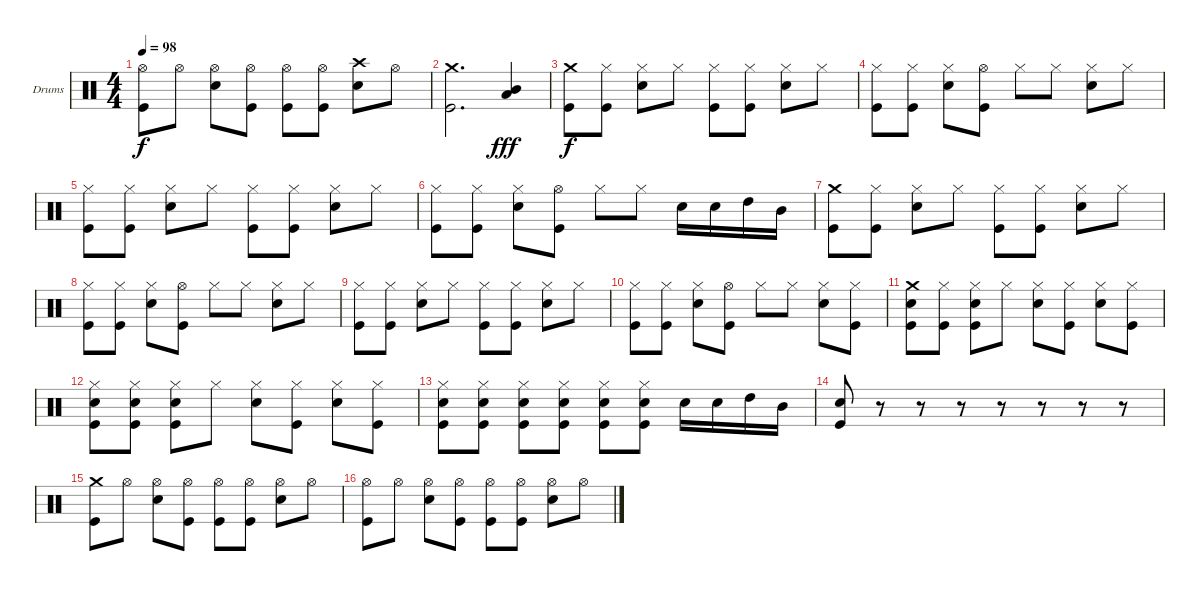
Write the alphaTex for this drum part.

\bracketExtendMode groupsimilarinstruments
\firstSystemTrackNameOrientation horizontal
\otherSystemsTrackNameOrientation horizontal
\track ("Drumkit" "Drums") {instrument percussion}
\staff {score}
\articulation defaults
\ts (4 4)
\tempo 98
\clef neutral
\scale
0.333333
\ks c
("Kick (hit)" "Hi-Hat (open)").8{dy f} "Hi-Hat (open)".8 ("Snare (hit) 2" "Hi-Hat (open)").8 ("Kick (hit)" "Hi-Hat (open)").8 ("Kick (hit)" "Hi-Hat (open)").8 ("Kick (hit)" "Hi-Hat (open)").8 ("Snare (hit) 2" "Crash high (hit)").8 "Hi-Hat (open)".8 |
\scale
0.333333 ("Kick (hit)" "Crash medium (hit)").2{d} ("Mid Tom (hit)" "Low Tom (hit)").4{dy fff} |
\scale
0.333333 ("Kick (hit)" "Crash medium (hit)").8{dy f} ("Kick (hit)" "Hi-Hat (closed)").8 ("Snare (hit) 2" "Hi-Hat (closed)").8 "Hi-Hat (closed)".8 ("Kick (hit)" "Hi-Hat (closed)").8 ("Kick (hit)" "Hi-Hat (closed)").8 ("Snare (hit) 2" "Hi-Hat (closed)").8 "Hi-Hat (closed)".8 |
\scale
0.333333 ("Kick (hit)" "Hi-Hat (closed)").8 ("Kick (hit)" "Hi-Hat (closed)").8 ("Snare (hit) 2" "Hi-Hat (closed)").8 ("Kick (hit)" "Hi-Hat (open)").8 "Hi-Hat (closed)".8 "Hi-Hat (closed)".8 ("Snare (hit) 2" "Hi-Hat (closed)").8 "Hi-Hat (closed)".8 |
\scale
0.333333 ("Kick (hit)" "Hi-Hat (closed)").8 ("Kick (hit)" "Hi-Hat (closed)").8 ("Snare (hit) 2" "Hi-Hat (closed)").8 "Hi-Hat (closed)".8 ("Kick (hit)" "Hi-Hat (closed)").8 ("Kick (hit)" "Hi-Hat (closed)").8 ("Snare (hit) 2" "Hi-Hat (closed)").8 "Hi-Hat (closed)".8 |
\scale
0.333333 ("Kick (hit)" "Hi-Hat (closed)").8 ("Kick (hit)" "Hi-Hat (closed)").8 ("Snare (hit) 2" "Hi-Hat (closed)").8 ("Kick (hit)" "Hi-Hat (open)").8 "Hi-Hat (closed)".8 "Hi-Hat (closed)".8 "Snare (hit) 2".16 "Snare (hit) 2".16 "High Tom (hit)".16 "Mid Tom (hit)".16 |
\scale
0.333333 ("Kick (hit)" "Crash medium (hit)").8 ("Kick (hit)" "Hi-Hat (closed)").8 ("Snare (hit) 2" "Hi-Hat (closed)").8 "Hi-Hat (closed)".8 ("Kick (hit)" "Hi-Hat (closed)").8 ("Kick (hit)" "Hi-Hat (closed)").8 ("Snare (hit) 2" "Hi-Hat (closed)").8 "Hi-Hat (closed)".8 |
\scale
0.333333 ("Kick (hit)" "Hi-Hat (closed)").8 ("Kick (hit)" "Hi-Hat (closed)").8 ("Snare (hit) 2" "Hi-Hat (closed)").8 ("Kick (hit)" "Hi-Hat (open)").8 "Hi-Hat (closed)".8 "Hi-Hat (closed)".8 ("Snare (hit) 2" "Hi-Hat (closed)").8 "Hi-Hat (closed)".8 |
\scale
0.333333 ("Kick (hit)" "Hi-Hat (closed)").8 ("Kick (hit)" "Hi-Hat (closed)").8 ("Snare (hit) 2" "Hi-Hat (closed)").8 "Hi-Hat (closed)".8 ("Kick (hit)" "Hi-Hat (closed)").8 ("Kick (hit)" "Hi-Hat (closed)").8 ("Snare (hit) 2" "Hi-Hat (closed)").8 "Hi-Hat (closed)".8 |
\scale
0.333333 ("Kick (hit)" "Hi-Hat (closed)").8 ("Kick (hit)" "Hi-Hat (closed)").8 ("Snare (hit) 2" "Hi-Hat (closed)").8 ("Kick (hit)" "Hi-Hat (open)").8 "Hi-Hat (closed)".8 "Hi-Hat (closed)".8 ("Snare (hit) 2" "Hi-Hat (closed)").8 ("Hi-Hat (closed)" "Kick (hit)").8 |
\scale
0.333333 ("Crash medium (hit)" "Snare (hit) 2" "Kick (hit)").8 ("Kick (hit)" "Hi-Hat (closed)").8 ("Snare (hit) 2" "Kick (hit)" "Hi-Hat (closed)").8 "Hi-Hat (closed)".8 ("Snare (hit) 2" "Hi-Hat (closed)").8 ("Kick (hit)" "Hi-Hat (closed)").8 ("Snare (hit) 2" "Hi-Hat (closed)").8 ("Kick (hit)" "Hi-Hat (closed)").8 |
\scale
0.333333 ("Snare (hit) 2" "Kick (hit)" "Hi-Hat (closed)").8 ("Snare (hit) 2" "Kick (hit)" "Hi-Hat (closed)").8 ("Snare (hit) 2" "Kick (hit)" "Hi-Hat (closed)").8 "Hi-Hat (closed)".8 ("Snare (hit) 2" "Hi-Hat (closed)").8 ("Kick (hit)" "Hi-Hat (closed)").8 ("Snare (hit) 2" "Hi-Hat (closed)").8 ("Kick (hit)" "Hi-Hat (closed)").8 |
\scale
0.333333 ("Snare (hit) 2" "Kick (hit)" "Hi-Hat (closed)").8 ("Snare (hit) 2" "Kick (hit)" "Hi-Hat (closed)").8 ("Snare (hit) 2" "Kick (hit)" "Hi-Hat (closed)").8 ("Snare (hit) 2" "Kick (hit)" "Hi-Hat (closed)").8 ("Snare (hit) 2" "Kick (hit)" "Hi-Hat (closed)").8 ("Kick (hit)" "Snare (hit) 2" "Hi-Hat (closed)").8 "Snare (hit) 2".16 "Snare (hit) 2".16 "High Tom (hit)".16 "Mid Tom (hit)".16 |
\scale
0.333333 ("Kick (hit)" "Snare (hit) 2").8 r.8 r.8 r.8 r.8 r.8 r.8 r.8 |
\scale
0.333333 ("Kick (hit)" "Crash medium (hit)").8 "Hi-Hat (open)".8 ("Snare (hit) 2" "Hi-Hat (open)").8 ("Kick (hit)" "Hi-Hat (open)").8 ("Kick (hit)" "Hi-Hat (open)").8 ("Kick (hit)" "Hi-Hat (open)").8 ("Snare (hit) 2" "Hi-Hat (open)").8 "Hi-Hat (open)".8 |
\scale
0.333333 ("Kick (hit)" "Hi-Hat (open)").8 "Hi-Hat (open)".8 ("Snare (hit) 2" "Hi-Hat (open)").8 ("Kick (hit)" "Hi-Hat (open)").8 ("Kick (hit)" "Hi-Hat (open)").8 ("Kick (hit)" "Hi-Hat (open)").8 ("Snare (hit) 2" "Hi-Hat (open)").8 "Hi-Hat (open)".8
